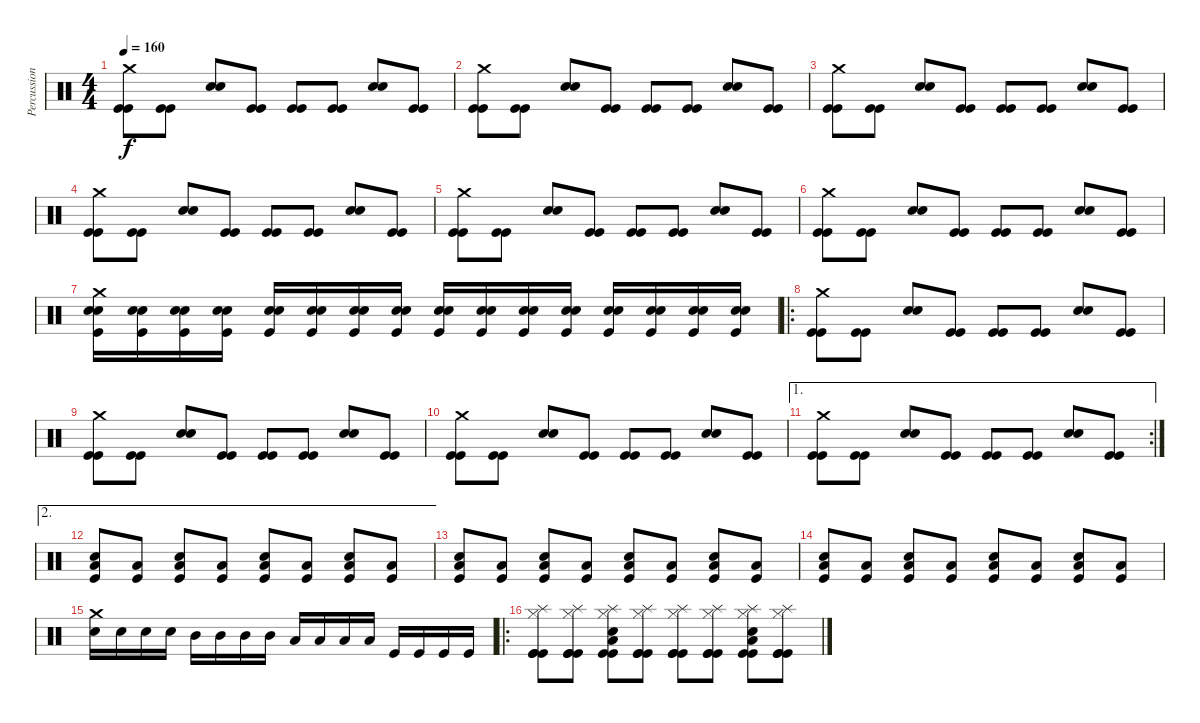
\track ("Percussion" "Percussion") {instrument percussion}
\staff {score}
\articulation defaults
\ts (4 4)
\tempo 160
\clef neutral
\ks c
("Crash medium (hit)" "Kick (hit)" "Kick (hit)").8{dy f} ("Kick (hit)" "Kick (hit)").8 ("Electric Snare (hit)" "Electric Snare (hit)").8 ("Kick (hit)" "Kick (hit)").8 ("Kick (hit)" "Kick (hit)").8 ("Kick (hit)" "Kick (hit)").8 ("Electric Snare (hit)" "Electric Snare (hit)").8 ("Kick (hit)" "Kick (hit)").8 |
("Crash medium (hit)" "Kick (hit)" "Kick (hit)").8 ("Kick (hit)" "Kick (hit)").8 ("Electric Snare (hit)" "Electric Snare (hit)").8 ("Kick (hit)" "Kick (hit)").8 ("Kick (hit)" "Kick (hit)").8 ("Kick (hit)" "Kick (hit)").8 ("Electric Snare (hit)" "Electric Snare (hit)").8 ("Kick (hit)" "Kick (hit)").8 |
("Crash medium (hit)" "Kick (hit)" "Kick (hit)").8 ("Kick (hit)" "Kick (hit)").8 ("Electric Snare (hit)" "Electric Snare (hit)").8 ("Kick (hit)" "Kick (hit)").8 ("Kick (hit)" "Kick (hit)").8 ("Kick (hit)" "Kick (hit)").8 ("Electric Snare (hit)" "Electric Snare (hit)").8 ("Kick (hit)" "Kick (hit)").8 |
("Crash medium (hit)" "Kick (hit)" "Kick (hit)").8 ("Kick (hit)" "Kick (hit)").8 ("Electric Snare (hit)" "Electric Snare (hit)").8 ("Kick (hit)" "Kick (hit)").8 ("Kick (hit)" "Kick (hit)").8 ("Kick (hit)" "Kick (hit)").8 ("Electric Snare (hit)" "Electric Snare (hit)").8 ("Kick (hit)" "Kick (hit)").8 |
("Crash medium (hit)" "Kick (hit)" "Kick (hit)").8 ("Kick (hit)" "Kick (hit)").8 ("Electric Snare (hit)" "Electric Snare (hit)").8 ("Kick (hit)" "Kick (hit)").8 ("Kick (hit)" "Kick (hit)").8 ("Kick (hit)" "Kick (hit)").8 ("Electric Snare (hit)" "Electric Snare (hit)").8 ("Kick (hit)" "Kick (hit)").8 |
("Crash medium (hit)" "Kick (hit)" "Kick (hit)").8 ("Kick (hit)" "Kick (hit)").8 ("Electric Snare (hit)" "Electric Snare (hit)").8 ("Kick (hit)" "Kick (hit)").8 ("Kick (hit)" "Kick (hit)").8 ("Kick (hit)" "Kick (hit)").8 ("Electric Snare (hit)" "Electric Snare (hit)").8 ("Kick (hit)" "Kick (hit)").8 |
("Crash medium (hit)" "Electric Snare (hit)" "Electric Snare (hit)" "Kick (hit)").16 ("Electric Snare (hit)" "Electric Snare (hit)" "Kick (hit)").16 ("Electric Snare (hit)" "Electric Snare (hit)" "Kick (hit)").16 ("Electric Snare (hit)" "Electric Snare (hit)" "Kick (hit)").16 ("Electric Snare (hit)" "Electric Snare (hit)" "Kick (hit)").16 ("Electric Snare (hit)" "Electric Snare (hit)" "Kick (hit)").16 ("Electric Snare (hit)" "Electric Snare (hit)" "Kick (hit)").16 ("Electric Snare (hit)" "Electric Snare (hit)" "Kick (hit)").16 ("Electric Snare (hit)" "Electric Snare (hit)" "Kick (hit)").16 ("Electric Snare (hit)" "Electric Snare (hit)" "Kick (hit)").16 ("Electric Snare (hit)" "Electric Snare (hit)" "Kick (hit)").16 ("Electric Snare (hit)" "Electric Snare (hit)" "Kick (hit)").16 ("Electric Snare (hit)" "Electric Snare (hit)" "Kick (hit)").16 ("Electric Snare (hit)" "Electric Snare (hit)" "Kick (hit)").16 ("Electric Snare (hit)" "Electric Snare (hit)" "Kick (hit)").16 ("Electric Snare (hit)" "Electric Snare (hit)" "Kick (hit)").16 |
\ro
("Crash medium (hit)" "Kick (hit)" "Kick (hit)").8 ("Kick (hit)" "Kick (hit)").8 ("Electric Snare (hit)" "Electric Snare (hit)").8 ("Kick (hit)" "Kick (hit)").8 ("Kick (hit)" "Kick (hit)").8 ("Kick (hit)" "Kick (hit)").8 ("Electric Snare (hit)" "Electric Snare (hit)").8 ("Kick (hit)" "Kick (hit)").8 |
("Crash medium (hit)" "Kick (hit)" "Kick (hit)").8 ("Kick (hit)" "Kick (hit)").8 ("Electric Snare (hit)" "Electric Snare (hit)").8 ("Kick (hit)" "Kick (hit)").8 ("Kick (hit)" "Kick (hit)").8 ("Kick (hit)" "Kick (hit)").8 ("Electric Snare (hit)" "Electric Snare (hit)").8 ("Kick (hit)" "Kick (hit)").8 |
("Crash medium (hit)" "Kick (hit)" "Kick (hit)").8 ("Kick (hit)" "Kick (hit)").8 ("Electric Snare (hit)" "Electric Snare (hit)").8 ("Kick (hit)" "Kick (hit)").8 ("Kick (hit)" "Kick (hit)").8 ("Kick (hit)" "Kick (hit)").8 ("Electric Snare (hit)" "Electric Snare (hit)").8 ("Kick (hit)" "Kick (hit)").8 |
\ae 1
\rc 2
("Crash medium (hit)" "Kick (hit)" "Kick (hit)").8 ("Kick (hit)" "Kick (hit)").8 ("Electric Snare (hit)" "Electric Snare (hit)").8 ("Kick (hit)" "Kick (hit)").8 ("Kick (hit)" "Kick (hit)").8 ("Kick (hit)" "Kick (hit)").8 ("Electric Snare (hit)" "Electric Snare (hit)").8 ("Kick (hit)" "Kick (hit)").8 |
\ae 2
("Electric Snare (hit)" "Kick (hit)" "Low Tom (hit)").8 ("Kick (hit)" "Low Tom (hit)").8 ("Electric Snare (hit)" "Kick (hit)" "Low Tom (hit)").8 ("Kick (hit)" "Low Tom (hit)").8 ("Electric Snare (hit)" "Kick (hit)" "Low Tom (hit)").8 ("Kick (hit)" "Low Tom (hit)").8 ("Electric Snare (hit)" "Kick (hit)" "Low Tom (hit)").8 ("Kick (hit)" "Low Tom (hit)").8 |
("Electric Snare (hit)" "Kick (hit)" "Low Tom (hit)").8 ("Kick (hit)" "Low Tom (hit)").8 ("Electric Snare (hit)" "Kick (hit)" "Low Tom (hit)").8 ("Kick (hit)" "Low Tom (hit)").8 ("Electric Snare (hit)" "Kick (hit)" "Low Tom (hit)").8 ("Kick (hit)" "Low Tom (hit)").8 ("Electric Snare (hit)" "Kick (hit)" "Low Tom (hit)").8 ("Kick (hit)" "Low Tom (hit)").8 |
("Electric Snare (hit)" "Kick (hit)" "Low Tom (hit)").8 ("Kick (hit)" "Low Tom (hit)").8 ("Electric Snare (hit)" "Kick (hit)" "Low Tom (hit)").8 ("Kick (hit)" "Low Tom (hit)").8 ("Electric Snare (hit)" "Kick (hit)" "Low Tom (hit)").8 ("Kick (hit)" "Low Tom (hit)").8 ("Electric Snare (hit)" "Kick (hit)" "Low Tom (hit)").8 ("Kick (hit)" "Low Tom (hit)").8 |
("Crash medium (hit)" "Electric Snare (hit)").16 "Electric Snare (hit)".16 "Electric Snare (hit)".16 "Electric Snare (hit)".16 "Mid Tom (hit)".16 "Mid Tom (hit)".16 "Mid Tom (hit)".16 "Mid Tom (hit)".16 "Low Tom (hit)".16 "Low Tom (hit)".16 "Low Tom (hit)".16 "Low Tom (hit)".16 "Kick (hit)".16 "Kick (hit)".16 "Kick (hit)".16 "Kick (hit)".16 |
\ro
("Hi-Hat (closed)" "Splash (hit)" "Kick (hit)" "Kick (hit)" "Kick (hit)").8 ("Hi-Hat (closed)" "Splash (hit)" "Kick (hit)" "Kick (hit)" "Kick (hit)").8 ("Hi-Hat (closed)" "Splash (hit)" "Low Tom (hit)" "Electric Snare (hit)" "Kick (hit)" "Kick (hit)").8 ("Hi-Hat (closed)" "Splash (hit)" "Kick (hit)" "Kick (hit)" "Kick (hit)").8 ("Hi-Hat (closed)" "Splash (hit)" "Kick (hit)" "Kick (hit)" "Kick (hit)").8 ("Hi-Hat (closed)" "Splash (hit)" "Kick (hit)" "Kick (hit)" "Kick (hit)").8 ("Hi-Hat (closed)" "Splash (hit)" "Low Tom (hit)" "Electric Snare (hit)" "Kick (hit)" "Kick (hit)").8 ("Hi-Hat (closed)" "Splash (hit)" "Kick (hit)" "Kick (hit)" "Kick (hit)").8
